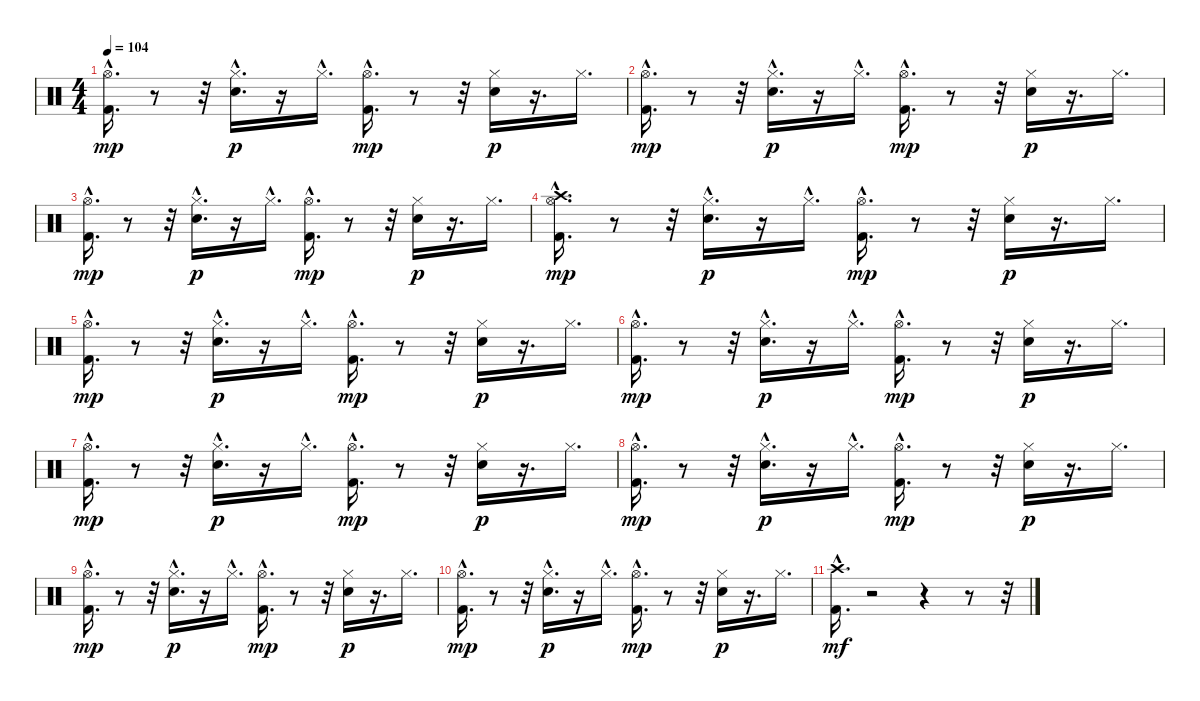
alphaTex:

\track "" {instrument percussion}
\staff {score}
\articulation defaults
\ts (4 4)
\tempo 104
\clef neutral
\ks c
("Hi-Hat (open)"{hac} "Kick (hit) 2"{hac}).16{d dy mp} r.8 r.32 ("Hi-Hat (closed)"{hac} "Snare (hit) 2"{hac}).16{d dy p} r.16 "Hi-Hat (closed)"{hac}.16{d} ("Hi-Hat (open)"{hac} "Kick (hit) 2"{hac}).16{d dy mp} r.8 r.32 ("Hi-Hat (closed)" "Snare (hit) 2").16{dy p} r.16{d} "Hi-Hat (closed)".16{d} |
("Hi-Hat (open)"{hac} "Kick (hit) 2"{hac}).16{d dy mp} r.8 r.32 ("Hi-Hat (closed)"{hac} "Snare (hit) 2"{hac}).16{d dy p} r.16 "Hi-Hat (closed)"{hac}.16{d} ("Hi-Hat (open)"{hac} "Kick (hit) 2"{hac}).16{d dy mp} r.8 r.32 ("Hi-Hat (closed)" "Snare (hit) 2").16{dy p} r.16{d} "Hi-Hat (closed)".16{d} |
("Hi-Hat (open)"{hac} "Kick (hit) 2"{hac}).16{d dy mp} r.8 r.32 ("Hi-Hat (closed)"{hac} "Snare (hit) 2"{hac}).16{d dy p} r.16 "Hi-Hat (closed)"{hac}.16{d} ("Hi-Hat (open)"{hac} "Kick (hit) 2"{hac}).16{d dy mp} r.8 r.32 ("Hi-Hat (closed)" "Snare (hit) 2").16{dy p} r.16{d} "Hi-Hat (closed)".16{d} |
("Crash high (hit)"{hac} "Hi-Hat (open)"{hac} "Kick (hit) 2"{hac}).16{d dy mp} r.8 r.32 ("Hi-Hat (closed)"{hac} "Snare (hit) 2"{hac}).16{d dy p} r.16 "Hi-Hat (closed)"{hac}.16{d} ("Hi-Hat (open)"{hac} "Kick (hit) 2"{hac}).16{d dy mp} r.8 r.32 ("Hi-Hat (closed)" "Snare (hit) 2").16{dy p} r.16{d} "Hi-Hat (closed)".16{d} |
("Hi-Hat (open)"{hac} "Kick (hit) 2"{hac}).16{d dy mp} r.8 r.32 ("Hi-Hat (closed)"{hac} "Snare (hit) 2"{hac}).16{d dy p} r.16 "Hi-Hat (closed)"{hac}.16{d} ("Hi-Hat (open)"{hac} "Kick (hit) 2"{hac}).16{d dy mp} r.8 r.32 ("Hi-Hat (closed)" "Snare (hit) 2").16{dy p} r.16{d} "Hi-Hat (closed)".16{d} |
("Hi-Hat (open)"{hac} "Kick (hit) 2"{hac}).16{d dy mp} r.8 r.32 ("Hi-Hat (closed)"{hac} "Snare (hit) 2"{hac}).16{d dy p} r.16 "Hi-Hat (closed)"{hac}.16{d} ("Hi-Hat (open)"{hac} "Kick (hit) 2"{hac}).16{d dy mp} r.8 r.32 ("Hi-Hat (closed)" "Snare (hit) 2").16{dy p} r.16{d} "Hi-Hat (closed)".16{d} |
("Hi-Hat (open)"{hac} "Kick (hit) 2"{hac}).16{d dy mp} r.8 r.32 ("Hi-Hat (closed)"{hac} "Snare (hit) 2"{hac}).16{d dy p} r.16 "Hi-Hat (closed)"{hac}.16{d} ("Hi-Hat (open)"{hac} "Kick (hit) 2"{hac}).16{d dy mp} r.8 r.32 ("Hi-Hat (closed)" "Snare (hit) 2").16{dy p} r.16{d} "Hi-Hat (closed)".16{d} |
("Hi-Hat (open)"{hac} "Kick (hit) 2"{hac}).16{d dy mp} r.8 r.32 ("Hi-Hat (closed)"{hac} "Snare (hit) 2"{hac}).16{d dy p} r.16 "Hi-Hat (closed)"{hac}.16{d} ("Hi-Hat (open)"{hac} "Kick (hit) 2"{hac}).16{d dy mp} r.8 r.32 ("Hi-Hat (closed)" "Snare (hit) 2").16{dy p} r.16{d} "Hi-Hat (closed)".16{d} |
("Hi-Hat (open)"{hac} "Kick (hit) 2"{hac}).16{d dy mp} r.8 r.32 ("Hi-Hat (closed)"{hac} "Snare (hit) 2"{hac}).16{d dy p} r.16 "Hi-Hat (closed)"{hac}.16{d} ("Hi-Hat (open)"{hac} "Kick (hit) 2"{hac}).16{d dy mp} r.8 r.32 ("Hi-Hat (closed)" "Snare (hit) 2").16{dy p} r.16{d} "Hi-Hat (closed)".16{d} |
("Hi-Hat (open)"{hac} "Kick (hit) 2"{hac}).16{d dy mp} r.8 r.32 ("Hi-Hat (closed)"{hac} "Snare (hit) 2"{hac}).16{d dy p} r.16 "Hi-Hat (closed)"{hac}.16{d} ("Hi-Hat (open)"{hac} "Kick (hit) 2"{hac}).16{d dy mp} r.8 r.32 ("Hi-Hat (closed)" "Snare (hit) 2").16{dy p} r.16{d} "Hi-Hat (closed)".16{d} |
("Crash high (hit)"{hac} "Kick (hit) 2"{hac}).16{d dy mf} r.2 r.4 r.8 r.32
